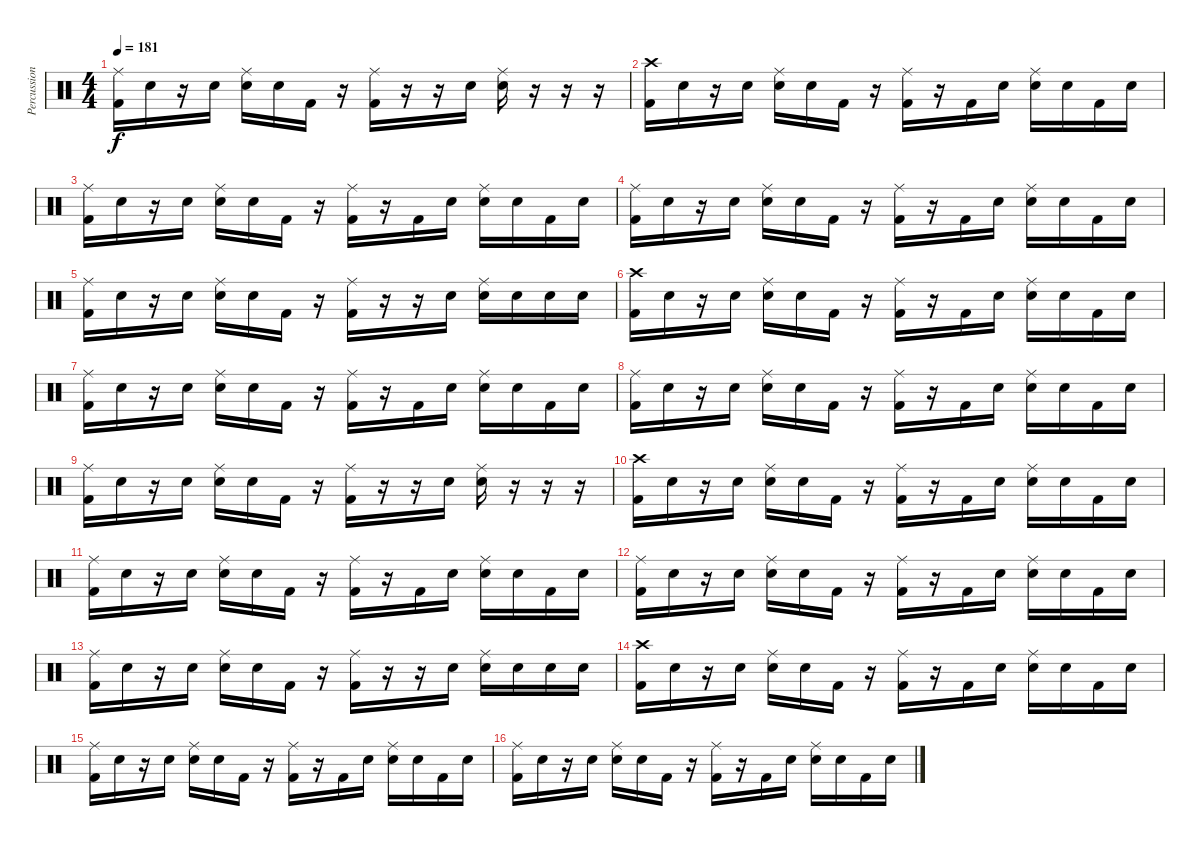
\track ("Percussion" "Percussion") {instrument percussion}
\staff {score}
\articulation defaults
\ts (4 4)
\tempo 181
\clef neutral
\ks c
("Kick (hit) 2" "Ride (middle)").16{dy f} "Snare (hit)"{x}.16 r.16 "Snare (hit)"{x}.16 ("Electric Snare (hit)" "Ride (middle)").16 "Snare (hit)"{x}.16 "Kick (hit) 2".16 r.16 ("Kick (hit) 2" "Ride (middle)").16 r.16 r.16 "Snare (hit)"{x}.16 ("Electric Snare (hit)" "Ride (middle)").16 r.16 r.16 r.16 |
("Kick (hit) 2" "Crash high (hit)").16 "Snare (hit)"{x}.16 r.16 "Snare (hit)"{x}.16 ("Electric Snare (hit)" "Ride (middle)").16 "Snare (hit)"{x}.16 "Kick (hit) 2".16 r.16 ("Kick (hit) 2" "Ride (middle)").16 r.16 "Kick (hit) 2".16 "Snare (hit)"{x}.16 ("Electric Snare (hit)" "Ride (middle)").16 "Snare (hit)"{x}.16 "Kick (hit) 2".16 "Snare (hit)"{x}.16 |
("Kick (hit) 2" "Ride (middle)").16 "Snare (hit)"{x}.16 r.16 "Snare (hit)"{x}.16 ("Electric Snare (hit)" "Ride (middle)").16 "Snare (hit)"{x}.16 "Kick (hit) 2".16 r.16 ("Kick (hit) 2" "Ride (middle)").16 r.16 "Kick (hit) 2".16 "Snare (hit)"{x}.16 ("Electric Snare (hit)" "Ride (middle)").16 "Snare (hit)"{x}.16 "Kick (hit) 2".16 "Snare (hit)"{x}.16 |
("Kick (hit) 2" "Ride (middle)").16 "Snare (hit)"{x}.16 r.16 "Snare (hit)"{x}.16 ("Electric Snare (hit)" "Ride (middle)").16 "Snare (hit)"{x}.16 "Kick (hit) 2".16 r.16 ("Kick (hit) 2" "Ride (middle)").16 r.16 "Kick (hit) 2".16 "Snare (hit)"{x}.16 ("Electric Snare (hit)" "Ride (middle)").16 "Snare (hit)"{x}.16 "Kick (hit) 2".16 "Snare (hit)"{x}.16 |
("Kick (hit) 2" "Ride (middle)").16 "Snare (hit)"{x}.16 r.16 "Snare (hit)"{x}.16 ("Electric Snare (hit)" "Ride (middle)").16 "Snare (hit)"{x}.16 "Kick (hit) 2".16 r.16 ("Kick (hit) 2" "Ride (middle)").16 r.16 r.16 "Snare (hit)"{x}.16 ("Electric Snare (hit)" "Ride (middle)").16 "Electric Snare (hit)".16 "Electric Snare (hit)".16 "Electric Snare (hit)".16 |
("Kick (hit) 2" "Crash high (hit)").16 "Snare (hit)"{x}.16 r.16 "Snare (hit)"{x}.16 ("Electric Snare (hit)" "Ride (middle)").16 "Snare (hit)"{x}.16 "Kick (hit) 2".16 r.16 ("Kick (hit) 2" "Ride (middle)").16 r.16 "Kick (hit) 2".16 "Snare (hit)"{x}.16 ("Electric Snare (hit)" "Ride (middle)").16 "Snare (hit)"{x}.16 "Kick (hit) 2".16 "Snare (hit)"{x}.16 |
("Kick (hit) 2" "Ride (middle)").16 "Snare (hit)"{x}.16 r.16 "Snare (hit)"{x}.16 ("Electric Snare (hit)" "Ride (middle)").16 "Snare (hit)"{x}.16 "Kick (hit) 2".16 r.16 ("Kick (hit) 2" "Ride (middle)").16 r.16 "Kick (hit) 2".16 "Snare (hit)"{x}.16 ("Electric Snare (hit)" "Ride (middle)").16 "Snare (hit)"{x}.16 "Kick (hit) 2".16 "Snare (hit)"{x}.16 |
("Kick (hit) 2" "Ride (middle)").16 "Snare (hit)"{x}.16 r.16 "Snare (hit)"{x}.16 ("Electric Snare (hit)" "Ride (middle)").16 "Snare (hit)"{x}.16 "Kick (hit) 2".16 r.16 ("Kick (hit) 2" "Ride (middle)").16 r.16 "Kick (hit) 2".16 "Snare (hit)"{x}.16 ("Electric Snare (hit)" "Ride (middle)").16 "Snare (hit)"{x}.16 "Kick (hit) 2".16 "Snare (hit)"{x}.16 |
("Kick (hit) 2" "Ride (middle)").16 "Snare (hit)"{x}.16 r.16 "Snare (hit)"{x}.16 ("Electric Snare (hit)" "Ride (middle)").16 "Snare (hit)"{x}.16 "Kick (hit) 2".16 r.16 ("Kick (hit) 2" "Ride (middle)").16 r.16 r.16 "Snare (hit)"{x}.16 ("Electric Snare (hit)" "Ride (middle)").16 r.16 r.16 r.16 |
("Kick (hit) 2" "Crash high (hit)").16 "Snare (hit)"{x}.16 r.16 "Snare (hit)"{x}.16 ("Electric Snare (hit)" "Ride (middle)").16 "Snare (hit)"{x}.16 "Kick (hit) 2".16 r.16 ("Kick (hit) 2" "Ride (middle)").16 r.16 "Kick (hit) 2".16 "Snare (hit)"{x}.16 ("Electric Snare (hit)" "Ride (middle)").16 "Snare (hit)"{x}.16 "Kick (hit) 2".16 "Snare (hit)"{x}.16 |
("Kick (hit) 2" "Ride (middle)").16 "Snare (hit)"{x}.16 r.16 "Snare (hit)"{x}.16 ("Electric Snare (hit)" "Ride (middle)").16 "Snare (hit)"{x}.16 "Kick (hit) 2".16 r.16 ("Kick (hit) 2" "Ride (middle)").16 r.16 "Kick (hit) 2".16 "Snare (hit)"{x}.16 ("Electric Snare (hit)" "Ride (middle)").16 "Snare (hit)"{x}.16 "Kick (hit) 2".16 "Snare (hit)"{x}.16 |
("Kick (hit) 2" "Ride (middle)").16 "Snare (hit)"{x}.16 r.16 "Snare (hit)"{x}.16 ("Electric Snare (hit)" "Ride (middle)").16 "Snare (hit)"{x}.16 "Kick (hit) 2".16 r.16 ("Kick (hit) 2" "Ride (middle)").16 r.16 "Kick (hit) 2".16 "Snare (hit)"{x}.16 ("Electric Snare (hit)" "Ride (middle)").16 "Snare (hit)"{x}.16 "Kick (hit) 2".16 "Snare (hit)"{x}.16 |
("Kick (hit) 2" "Ride (middle)").16 "Snare (hit)"{x}.16 r.16 "Snare (hit)"{x}.16 ("Electric Snare (hit)" "Ride (middle)").16 "Snare (hit)"{x}.16 "Kick (hit) 2".16 r.16 ("Kick (hit) 2" "Ride (middle)").16 r.16 r.16 "Snare (hit)"{x}.16 ("Electric Snare (hit)" "Ride (middle)").16 "Electric Snare (hit)".16 "Electric Snare (hit)".16 "Electric Snare (hit)".16 |
("Kick (hit) 2" "Crash high (hit)").16 "Snare (hit)"{x}.16 r.16 "Snare (hit)"{x}.16 ("Electric Snare (hit)" "Ride (middle)").16 "Snare (hit)"{x}.16 "Kick (hit) 2".16 r.16 ("Kick (hit) 2" "Ride (middle)").16 r.16 "Kick (hit) 2".16 "Snare (hit)"{x}.16 ("Electric Snare (hit)" "Ride (middle)").16 "Snare (hit)"{x}.16 "Kick (hit) 2".16 "Snare (hit)"{x}.16 |
("Kick (hit) 2" "Ride (middle)").16 "Snare (hit)"{x}.16 r.16 "Snare (hit)"{x}.16 ("Electric Snare (hit)" "Ride (middle)").16 "Snare (hit)"{x}.16 "Kick (hit) 2".16 r.16 ("Kick (hit) 2" "Ride (middle)").16 r.16 "Kick (hit) 2".16 "Snare (hit)"{x}.16 ("Electric Snare (hit)" "Ride (middle)").16 "Snare (hit)"{x}.16 "Kick (hit) 2".16 "Snare (hit)"{x}.16 |
("Kick (hit) 2" "Ride (middle)").16 "Snare (hit)"{x}.16 r.16 "Snare (hit)"{x}.16 ("Electric Snare (hit)" "Ride (middle)").16 "Snare (hit)"{x}.16 "Kick (hit) 2".16 r.16 ("Kick (hit) 2" "Ride (middle)").16 r.16 "Kick (hit) 2".16 "Snare (hit)"{x}.16 ("Electric Snare (hit)" "Ride (middle)").16 "Snare (hit)"{x}.16 "Kick (hit) 2".16 "Snare (hit)"{x}.16
